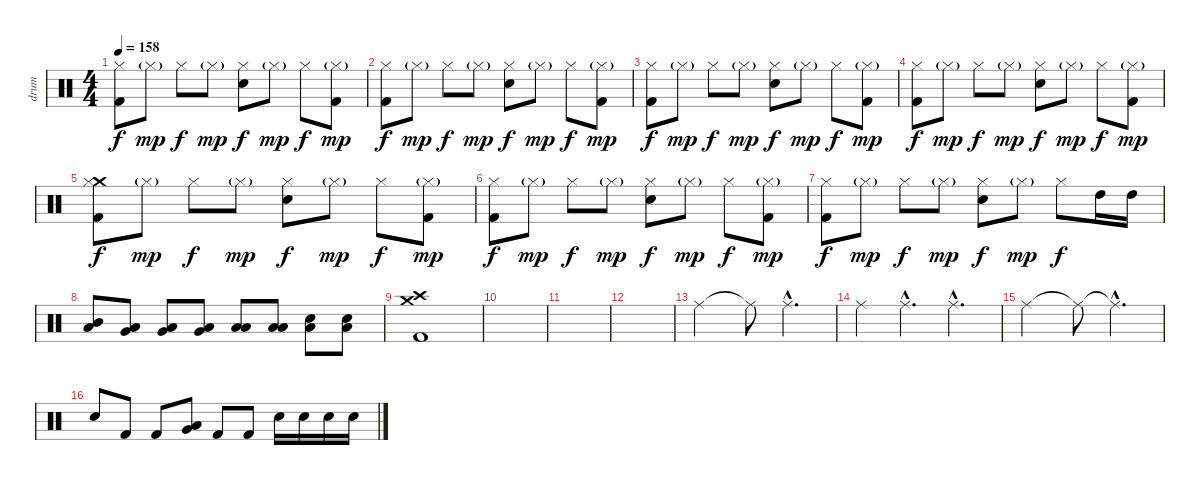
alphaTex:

\track ("drum" "drum") {instrument percussion}
\staff {score}
\articulation defaults
\ts (4 4)
\tempo 158
\clef neutral
\ks c
("Hi-Hat (closed)" "Kick (hit) 2").8{dy f} "Hi-Hat (closed)"{g}.8{dy mp} "Hi-Hat (closed)".8{dy f} "Hi-Hat (closed)"{g}.8{dy mp} ("Hi-Hat (closed)" "Electric Snare (hit)").8{dy f} "Hi-Hat (closed)"{g}.8{dy mp} "Hi-Hat (closed)".8{dy f} ("Hi-Hat (closed)"{g} "Kick (hit) 2").8{dy mp} |
("Hi-Hat (closed)" "Kick (hit) 2").8{dy f} "Hi-Hat (closed)"{g}.8{dy mp} "Hi-Hat (closed)".8{dy f} "Hi-Hat (closed)"{g}.8{dy mp} ("Hi-Hat (closed)" "Electric Snare (hit)").8{dy f} "Hi-Hat (closed)"{g}.8{dy mp} "Hi-Hat (closed)".8{dy f} ("Hi-Hat (closed)"{g} "Kick (hit) 2").8{dy mp} |
("Hi-Hat (closed)" "Kick (hit) 2").8{dy f} "Hi-Hat (closed)"{g}.8{dy mp} "Hi-Hat (closed)".8{dy f} "Hi-Hat (closed)"{g}.8{dy mp} ("Hi-Hat (closed)" "Electric Snare (hit)").8{dy f} "Hi-Hat (closed)"{g}.8{dy mp} "Hi-Hat (closed)".8{dy f} ("Hi-Hat (closed)"{g} "Kick (hit) 2").8{dy mp} |
("Hi-Hat (closed)" "Kick (hit) 2").8{dy f} "Hi-Hat (closed)"{g}.8{dy mp} "Hi-Hat (closed)".8{dy f} "Hi-Hat (closed)"{g}.8{dy mp} ("Hi-Hat (closed)" "Electric Snare (hit)").8{dy f} "Hi-Hat (closed)"{g}.8{dy mp} "Hi-Hat (closed)".8{dy f} ("Hi-Hat (closed)"{g} "Kick (hit) 2").8{dy mp} |
("Crash medium (hit)" "Hi-Hat (closed)" "Kick (hit) 2").8{dy f} "Hi-Hat (closed)"{g}.8{dy mp} "Hi-Hat (closed)".8{dy f} "Hi-Hat (closed)"{g}.8{dy mp} ("Hi-Hat (closed)" "Electric Snare (hit)").8{dy f} "Hi-Hat (closed)"{g}.8{dy mp} "Hi-Hat (closed)".8{dy f} ("Hi-Hat (closed)"{g} "Kick (hit) 2").8{dy mp} |
("Hi-Hat (closed)" "Kick (hit) 2").8{dy f} "Hi-Hat (closed)"{g}.8{dy mp} "Hi-Hat (closed)".8{dy f} "Hi-Hat (closed)"{g}.8{dy mp} ("Hi-Hat (closed)" "Electric Snare (hit)").8{dy f} "Hi-Hat (closed)"{g}.8{dy mp} "Hi-Hat (closed)".8{dy f} ("Hi-Hat (closed)"{g} "Kick (hit) 2").8{dy mp} |
("Hi-Hat (closed)" "Kick (hit) 2").8{dy f} "Hi-Hat (closed)"{g}.8{dy mp} "Hi-Hat (closed)".8{dy f} "Hi-Hat (closed)"{g}.8{dy mp} ("Hi-Hat (closed)" "Electric Snare (hit)").8{dy f} "Hi-Hat (closed)"{g}.8{dy mp} "Hi-Hat (closed)".8{dy f} "High Tom (hit)".16 "High Tom (hit)".16 |
("Mid Tom (hit)" "Low Tom (hit)").8 ("Low Tom (hit)" "Very Low Tom (hit)").8 ("Low Tom (hit)" "Very Low Tom (hit)").8 ("Low Tom (hit)" "Very Low Tom (hit)").8 ("Low Tom (hit)" "Low Floor Tom (hit)").8 ("Low Tom (hit)" "Low Floor Tom (hit)").8 ("Electric Snare (hit)" "Low Floor Tom (hit)").8 ("Electric Snare (hit)" "Low Floor Tom (hit)").8 |
("Crash medium (hit)" "Crash high (hit)" "Kick (hit) 2").1 |
|
|
|
"Ride (middle)".2 "Ride (middle)"{t}.8 "Ride (middle)"{hac}.4{d} |
"Ride (middle)".4 "Ride (middle)"{hac}.4{d} "Ride (middle)"{hac}.4{d} |
"Ride (middle)".2 "Ride (middle)"{t}.8 "Ride (middle)"{hac t}.4{d} |
"Electric Snare (hit)".8 "Kick (hit) 2".8 "Kick (hit) 2".8 ("Very Low Tom (hit)" "Low Floor Tom (hit)").8 "Kick (hit) 2".8 "Kick (hit) 2".8 "Electric Snare (hit)".16 "Electric Snare (hit)".16 "Electric Snare (hit)".16 "Electric Snare (hit)".16
